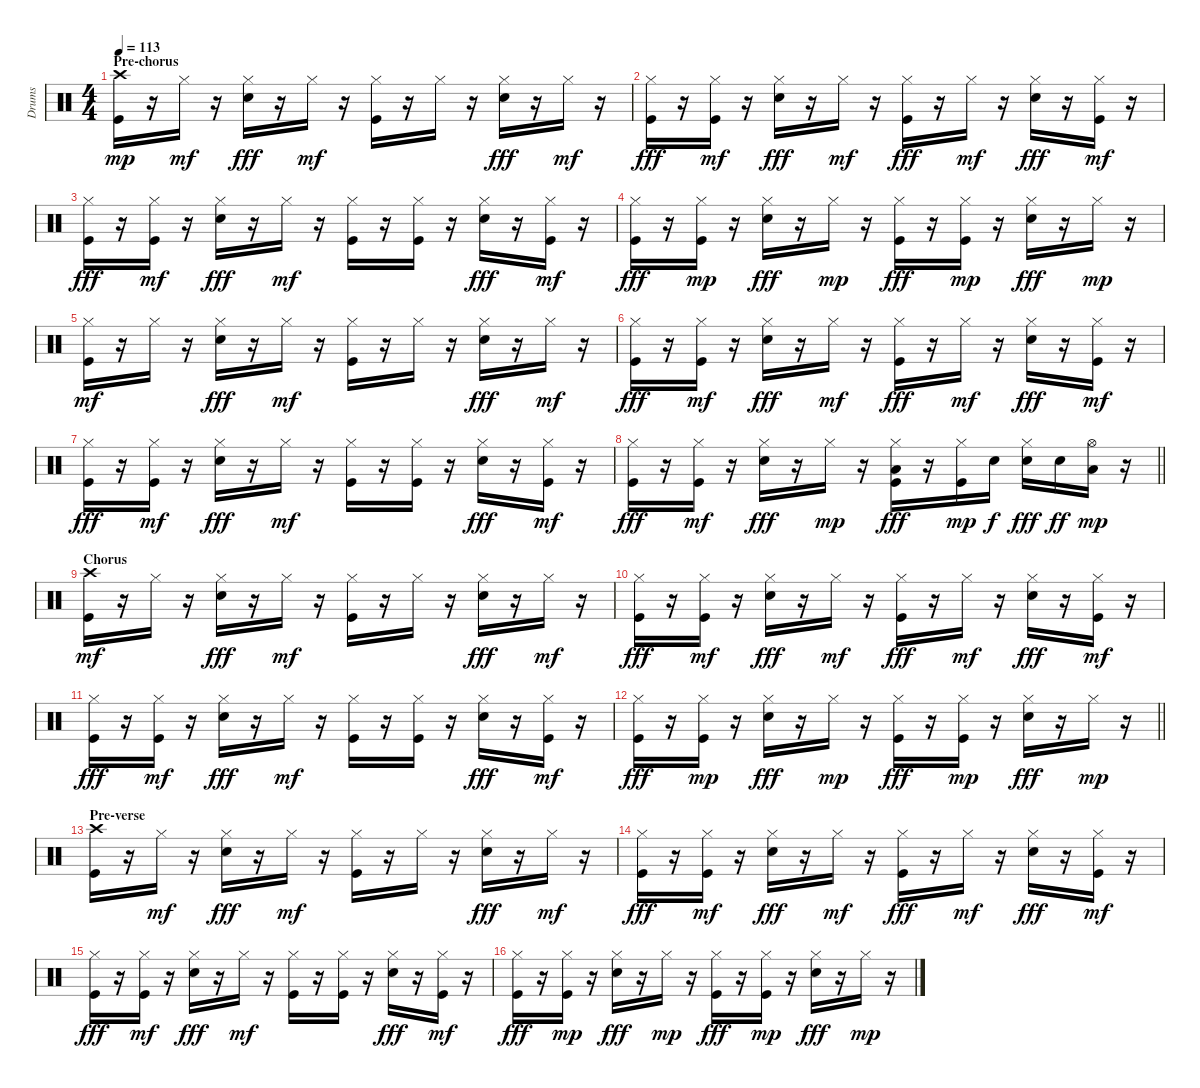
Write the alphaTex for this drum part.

\track ("Drums" "Drums") {instrument percussion}
\staff {score}
\articulation defaults
\ts (4 4)
\section ("" "Pre-chorus")
\tempo 113
\clef neutral
\ks c
("Kick (hit)" "Crash high (hit)").16{dy mp} r.16 "Hi-Hat (closed)".16{dy mf} r.16 ("Electric Snare (hit)" "Hi-Hat (closed)").16{dy fff} r.16 "Hi-Hat (closed)".16{dy mf} r.16 ("Kick (hit)" "Hi-Hat (closed)").16 r.16 "Hi-Hat (closed)".16 r.16 ("Electric Snare (hit)" "Hi-Hat (closed)").16{dy fff} r.16 "Hi-Hat (closed)".16{dy mf} r.16 |
("Kick (hit)" "Hi-Hat (closed)").16{dy fff} r.16 ("Kick (hit)" "Hi-Hat (closed)").16{dy mf} r.16 ("Electric Snare (hit)" "Hi-Hat (closed)").16{dy fff} r.16 "Hi-Hat (closed)".16{dy mf} r.16 ("Kick (hit)" "Hi-Hat (closed)").16{dy fff} r.16 "Hi-Hat (closed)".16{dy mf} r.16 ("Electric Snare (hit)" "Hi-Hat (closed)").16{dy fff} r.16 ("Kick (hit)" "Hi-Hat (closed)").16{dy mf} r.16 |
("Kick (hit)" "Hi-Hat (closed)").16{dy fff} r.16 ("Kick (hit)" "Hi-Hat (closed)").16{dy mf} r.16 ("Electric Snare (hit)" "Hi-Hat (closed)").16{dy fff} r.16 "Hi-Hat (closed)".16{dy mf} r.16 ("Kick (hit)" "Hi-Hat (closed)").16 r.16 ("Kick (hit)" "Hi-Hat (closed)").16 r.16 ("Electric Snare (hit)" "Hi-Hat (closed)").16{dy fff} r.16 ("Kick (hit)" "Hi-Hat (closed)").16{dy mf} r.16 |
("Kick (hit)" "Hi-Hat (closed)").16{dy fff} r.16 ("Kick (hit)" "Hi-Hat (closed)").16{dy mp} r.16 ("Electric Snare (hit)" "Hi-Hat (closed)").16{dy fff} r.16 "Hi-Hat (closed)".16{dy mp} r.16 ("Kick (hit)" "Hi-Hat (closed)").16{dy fff} r.16 ("Kick (hit)" "Hi-Hat (closed)").16{dy mp} r.16 ("Electric Snare (hit)" "Hi-Hat (closed)").16{dy fff} r.16 "Hi-Hat (closed)".16{dy mp} r.16 |
("Kick (hit)" "Hi-Hat (closed)").16{dy mf} r.16 "Hi-Hat (closed)".16 r.16 ("Electric Snare (hit)" "Hi-Hat (closed)").16{dy fff} r.16 "Hi-Hat (closed)".16{dy mf} r.16 ("Kick (hit)" "Hi-Hat (closed)").16 r.16 "Hi-Hat (closed)".16 r.16 ("Electric Snare (hit)" "Hi-Hat (closed)").16{dy fff} r.16 "Hi-Hat (closed)".16{dy mf} r.16 |
("Kick (hit)" "Hi-Hat (closed)").16{dy fff} r.16 ("Kick (hit)" "Hi-Hat (closed)").16{dy mf} r.16 ("Electric Snare (hit)" "Hi-Hat (closed)").16{dy fff} r.16 "Hi-Hat (closed)".16{dy mf} r.16 ("Kick (hit)" "Hi-Hat (closed)").16{dy fff} r.16 "Hi-Hat (closed)".16{dy mf} r.16 ("Electric Snare (hit)" "Hi-Hat (closed)").16{dy fff} r.16 ("Kick (hit)" "Hi-Hat (closed)").16{dy mf} r.16 |
("Kick (hit)" "Hi-Hat (closed)").16{dy fff} r.16 ("Kick (hit)" "Hi-Hat (closed)").16{dy mf} r.16 ("Electric Snare (hit)" "Hi-Hat (closed)").16{dy fff} r.16 "Hi-Hat (closed)".16{dy mf} r.16 ("Kick (hit)" "Hi-Hat (closed)").16 r.16 ("Kick (hit)" "Hi-Hat (closed)").16 r.16 ("Electric Snare (hit)" "Hi-Hat (closed)").16{dy fff} r.16 ("Kick (hit)" "Hi-Hat (closed)").16{dy mf} r.16 |
\barLineRight lightlight
("Kick (hit)" "Hi-Hat (closed)").16{dy fff} r.16 ("Kick (hit)" "Hi-Hat (closed)").16{dy mf} r.16 ("Electric Snare (hit)" "Hi-Hat (closed)").16{dy fff} r.16 "Hi-Hat (closed)".16{dy mp} r.16 ("Kick (hit)" "Hi-Hat (closed)" "Low Tom (hit)").16{dy fff} r.16 ("Kick (hit)" "Hi-Hat (closed)").16{dy mp} "Electric Snare (hit)".16{dy f} ("Electric Snare (hit)" "Hi-Hat (closed)").16{dy fff} "Electric Snare (hit)".16{dy ff} ("Low Tom (hit)" "Hi-Hat (open)").16{dy mp} r.16 |
\section ("" "Chorus")
("Kick (hit)" "Crash high (hit)").16{dy mf} r.16 "Hi-Hat (closed)".16 r.16 ("Electric Snare (hit)" "Hi-Hat (closed)").16{dy fff} r.16 "Hi-Hat (closed)".16{dy mf} r.16 ("Kick (hit)" "Hi-Hat (closed)").16 r.16 "Hi-Hat (closed)".16 r.16 ("Electric Snare (hit)" "Hi-Hat (closed)").16{dy fff} r.16 "Hi-Hat (closed)".16{dy mf} r.16 |
("Kick (hit)" "Hi-Hat (closed)").16{dy fff} r.16 ("Kick (hit)" "Hi-Hat (closed)").16{dy mf} r.16 ("Electric Snare (hit)" "Hi-Hat (closed)").16{dy fff} r.16 "Hi-Hat (closed)".16{dy mf} r.16 ("Kick (hit)" "Hi-Hat (closed)").16{dy fff} r.16 "Hi-Hat (closed)".16{dy mf} r.16 ("Electric Snare (hit)" "Hi-Hat (closed)").16{dy fff} r.16 ("Kick (hit)" "Hi-Hat (closed)").16{dy mf} r.16 |
("Kick (hit)" "Hi-Hat (closed)").16{dy fff} r.16 ("Kick (hit)" "Hi-Hat (closed)").16{dy mf} r.16 ("Electric Snare (hit)" "Hi-Hat (closed)").16{dy fff} r.16 "Hi-Hat (closed)".16{dy mf} r.16 ("Kick (hit)" "Hi-Hat (closed)").16 r.16 ("Kick (hit)" "Hi-Hat (closed)").16 r.16 ("Electric Snare (hit)" "Hi-Hat (closed)").16{dy fff} r.16 ("Kick (hit)" "Hi-Hat (closed)").16{dy mf} r.16 |
\barLineRight lightlight
("Kick (hit)" "Hi-Hat (closed)").16{dy fff} r.16 ("Kick (hit)" "Hi-Hat (closed)").16{dy mp} r.16 ("Electric Snare (hit)" "Hi-Hat (closed)").16{dy fff} r.16 "Hi-Hat (closed)".16{dy mp} r.16 ("Kick (hit)" "Hi-Hat (closed)").16{dy fff} r.16 ("Kick (hit)" "Hi-Hat (closed)").16{dy mp} r.16 ("Electric Snare (hit)" "Hi-Hat (closed)").16{dy fff} r.16 "Hi-Hat (closed)".16{dy mp} r.16 |
\section ("" "Pre-verse")
("Kick (hit)" "Crash high (hit)").16 r.16 "Hi-Hat (closed)".16{dy mf} r.16 ("Electric Snare (hit)" "Hi-Hat (closed)").16{dy fff} r.16 "Hi-Hat (closed)".16{dy mf} r.16 ("Kick (hit)" "Hi-Hat (closed)").16 r.16 "Hi-Hat (closed)".16 r.16 ("Electric Snare (hit)" "Hi-Hat (closed)").16{dy fff} r.16 "Hi-Hat (closed)".16{dy mf} r.16 |
("Kick (hit)" "Hi-Hat (closed)").16{dy fff} r.16 ("Kick (hit)" "Hi-Hat (closed)").16{dy mf} r.16 ("Electric Snare (hit)" "Hi-Hat (closed)").16{dy fff} r.16 "Hi-Hat (closed)".16{dy mf} r.16 ("Kick (hit)" "Hi-Hat (closed)").16{dy fff} r.16 "Hi-Hat (closed)".16{dy mf} r.16 ("Electric Snare (hit)" "Hi-Hat (closed)").16{dy fff} r.16 ("Kick (hit)" "Hi-Hat (closed)").16{dy mf} r.16 |
("Kick (hit)" "Hi-Hat (closed)").16{dy fff} r.16 ("Kick (hit)" "Hi-Hat (closed)").16{dy mf} r.16 ("Electric Snare (hit)" "Hi-Hat (closed)").16{dy fff} r.16 "Hi-Hat (closed)".16{dy mf} r.16 ("Kick (hit)" "Hi-Hat (closed)").16 r.16 ("Kick (hit)" "Hi-Hat (closed)").16 r.16 ("Electric Snare (hit)" "Hi-Hat (closed)").16{dy fff} r.16 ("Kick (hit)" "Hi-Hat (closed)").16{dy mf} r.16 |
("Kick (hit)" "Hi-Hat (closed)").16{dy fff} r.16 ("Kick (hit)" "Hi-Hat (closed)").16{dy mp} r.16 ("Electric Snare (hit)" "Hi-Hat (closed)").16{dy fff} r.16 "Hi-Hat (closed)".16{dy mp} r.16 ("Kick (hit)" "Hi-Hat (closed)").16{dy fff} r.16 ("Kick (hit)" "Hi-Hat (closed)").16{dy mp} r.16 ("Electric Snare (hit)" "Hi-Hat (closed)").16{dy fff} r.16 "Hi-Hat (closed)".16{dy mp} r.16
